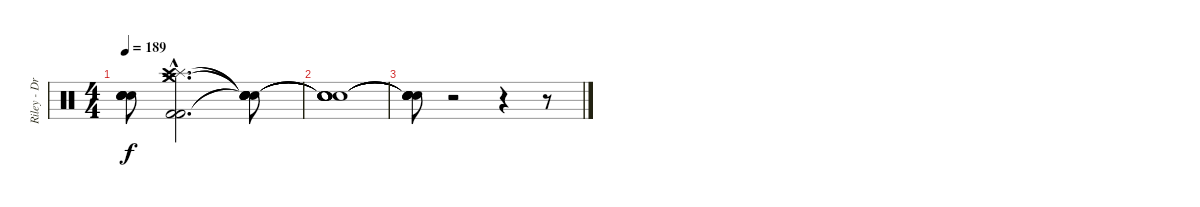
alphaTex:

\track ("Riley - Drums" "Riley - Dr") {instrument percussion}
\staff {score}
\articulation defaults
\ts (4 4)
\tempo 189
\clef neutral
\ks c
("Snare (hit)"{t} "Snare (hit)"{t} "Snare (hit)"{t} "Snare (hit)"{t} "Snare (hit)"{t}).8{dy f} ("Kick (hit) 2"{hac} "Kick (hit) 2"{hac} "Splash (hit)"{hac} "Crash medium (hit)"{hac} "Crash medium (hit)"{hac} "Crash high (hit)"{hac}).2{d} ("Snare (hit)"{t} "Snare (hit)"{t} "Snare (hit)"{t} "Snare (hit)"{t} "Snare (hit)"{t} "Snare (hit)"{t}).8 |
("Snare (hit)"{t} "Snare (hit)"{t} "Snare (hit)"{t} "Snare (hit)"{t} "Snare (hit)"{t} "Snare (hit)"{t}).1 |
("Snare (hit)"{t} "Snare (hit)"{t} "Snare (hit)"{t} "Snare (hit)"{t} "Snare (hit)"{t} "Snare (hit)"{t}).8 r.2 r.4 r.8
